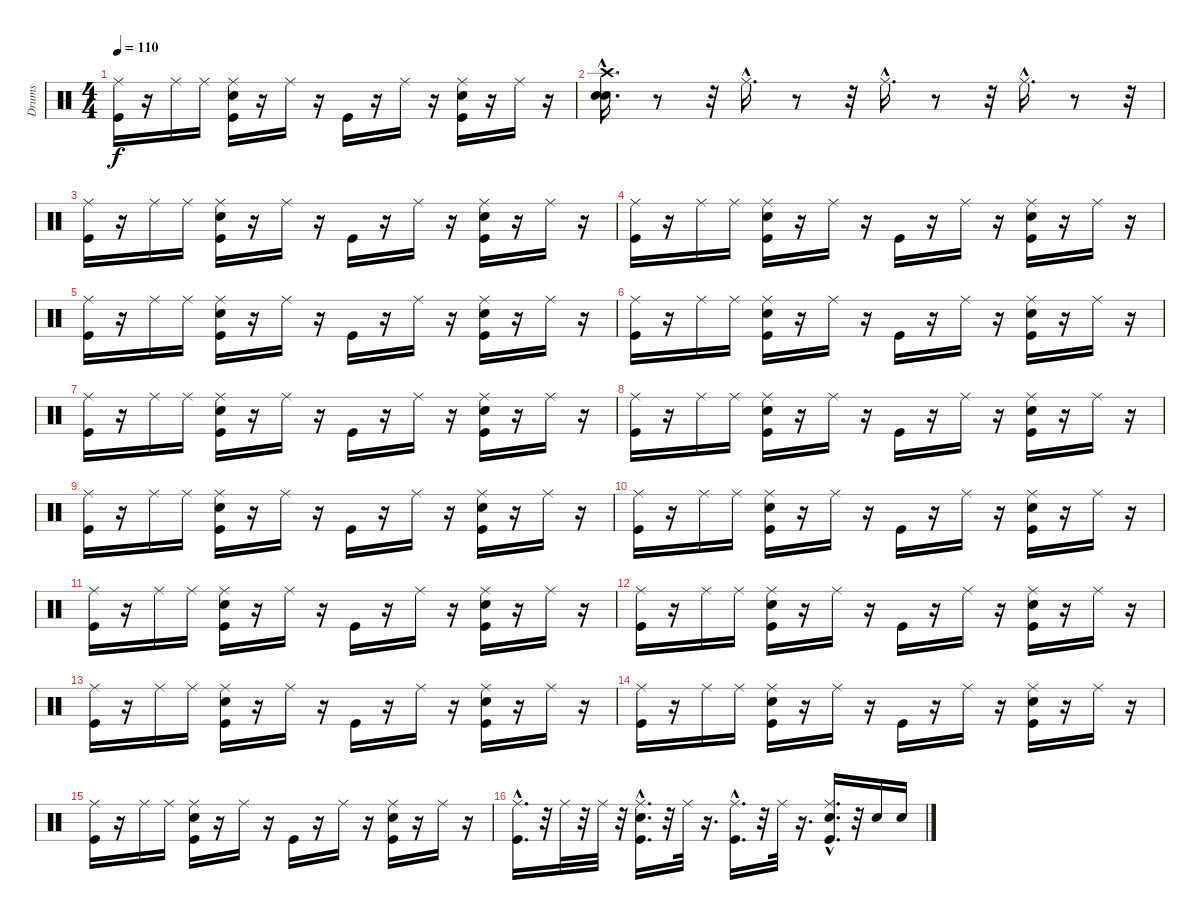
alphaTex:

\track ("Drums" "Drums") {instrument percussion}
\staff {score}
\articulation defaults
\ts (4 4)
\tempo 110
\clef neutral
\ks c
("Kick (hit)" "Ride (middle)").16{dy f} r.16 "Ride (middle)".16 "Ride (middle)".16 ("Snare (hit) 2" "Ride (middle)" "Kick (hit)").16 r.16 "Ride (middle)".16 r.16 "Kick (hit)".16 r.16 "Ride (middle)".16 r.16 ("Snare (hit) 2" "Ride (middle)" "Kick (hit)").16 r.16 "Ride (middle)".16 r.16 |
("Crash high (hit)"{hac} "Electric Snare (hit)"{hac} "Snare (hit) 2"{hac}).16{d} r.8 r.32 "Ride (middle)"{hac}.16{d} r.8 r.32 "Ride (middle)"{hac}.16{d} r.8 r.32 "Ride (middle)"{hac}.16{d} r.8 r.32 |
("Kick (hit)" "Ride (middle)").16 r.16 "Ride (middle)".16 "Ride (middle)".16 ("Snare (hit) 2" "Ride (middle)" "Kick (hit)").16 r.16 "Ride (middle)".16 r.16 "Kick (hit)".16 r.16 "Ride (middle)".16 r.16 ("Snare (hit) 2" "Ride (middle)" "Kick (hit)").16 r.16 "Ride (middle)".16 r.16 |
("Kick (hit)" "Ride (middle)").16 r.16 "Ride (middle)".16 "Ride (middle)".16 ("Snare (hit) 2" "Ride (middle)" "Kick (hit)").16 r.16 "Ride (middle)".16 r.16 "Kick (hit)".16 r.16 "Ride (middle)".16 r.16 ("Snare (hit) 2" "Ride (middle)" "Kick (hit)").16 r.16 "Ride (middle)".16 r.16 |
("Kick (hit)" "Ride (middle)").16 r.16 "Ride (middle)".16 "Ride (middle)".16 ("Snare (hit) 2" "Ride (middle)" "Kick (hit)").16 r.16 "Ride (middle)".16 r.16 "Kick (hit)".16 r.16 "Ride (middle)".16 r.16 ("Snare (hit) 2" "Ride (middle)" "Kick (hit)").16 r.16 "Ride (middle)".16 r.16 |
("Kick (hit)" "Ride (middle)").16 r.16 "Ride (middle)".16 "Ride (middle)".16 ("Snare (hit) 2" "Ride (middle)" "Kick (hit)").16 r.16 "Ride (middle)".16 r.16 "Kick (hit)".16 r.16 "Ride (middle)".16 r.16 ("Snare (hit) 2" "Ride (middle)" "Kick (hit)").16 r.16 "Ride (middle)".16 r.16 |
("Kick (hit)" "Ride (middle)").16 r.16 "Ride (middle)".16 "Ride (middle)".16 ("Snare (hit) 2" "Ride (middle)" "Kick (hit)").16 r.16 "Ride (middle)".16 r.16 "Kick (hit)".16 r.16 "Ride (middle)".16 r.16 ("Snare (hit) 2" "Ride (middle)" "Kick (hit)").16 r.16 "Ride (middle)".16 r.16 |
("Kick (hit)" "Ride (middle)").16 r.16 "Ride (middle)".16 "Ride (middle)".16 ("Snare (hit) 2" "Ride (middle)" "Kick (hit)").16 r.16 "Ride (middle)".16 r.16 "Kick (hit)".16 r.16 "Ride (middle)".16 r.16 ("Snare (hit) 2" "Ride (middle)" "Kick (hit)").16 r.16 "Ride (middle)".16 r.16 |
("Kick (hit)" "Ride (middle)").16 r.16 "Ride (middle)".16 "Ride (middle)".16 ("Snare (hit) 2" "Ride (middle)" "Kick (hit)").16 r.16 "Ride (middle)".16 r.16 "Kick (hit)".16 r.16 "Ride (middle)".16 r.16 ("Snare (hit) 2" "Ride (middle)" "Kick (hit)").16 r.16 "Ride (middle)".16 r.16 |
("Kick (hit)" "Ride (middle)").16 r.16 "Ride (middle)".16 "Ride (middle)".16 ("Snare (hit) 2" "Ride (middle)" "Kick (hit)").16 r.16 "Ride (middle)".16 r.16 "Kick (hit)".16 r.16 "Ride (middle)".16 r.16 ("Snare (hit) 2" "Ride (middle)" "Kick (hit)").16 r.16 "Ride (middle)".16 r.16 |
("Kick (hit)" "Ride (middle)").16 r.16 "Ride (middle)".16 "Ride (middle)".16 ("Snare (hit) 2" "Ride (middle)" "Kick (hit)").16 r.16 "Ride (middle)".16 r.16 "Kick (hit)".16 r.16 "Ride (middle)".16 r.16 ("Snare (hit) 2" "Ride (middle)" "Kick (hit)").16 r.16 "Ride (middle)".16 r.16 |
("Kick (hit)" "Ride (middle)").16 r.16 "Ride (middle)".16 "Ride (middle)".16 ("Snare (hit) 2" "Ride (middle)" "Kick (hit)").16 r.16 "Ride (middle)".16 r.16 "Kick (hit)".16 r.16 "Ride (middle)".16 r.16 ("Snare (hit) 2" "Ride (middle)" "Kick (hit)").16 r.16 "Ride (middle)".16 r.16 |
("Kick (hit)" "Ride (middle)").16 r.16 "Ride (middle)".16 "Ride (middle)".16 ("Snare (hit) 2" "Ride (middle)" "Kick (hit)").16 r.16 "Ride (middle)".16 r.16 "Kick (hit)".16 r.16 "Ride (middle)".16 r.16 ("Snare (hit) 2" "Ride (middle)" "Kick (hit)").16 r.16 "Ride (middle)".16 r.16 |
("Kick (hit)" "Ride (middle)").16 r.16 "Ride (middle)".16 "Ride (middle)".16 ("Snare (hit) 2" "Ride (middle)" "Kick (hit)").16 r.16 "Ride (middle)".16 r.16 "Kick (hit)".16 r.16 "Ride (middle)".16 r.16 ("Snare (hit) 2" "Ride (middle)" "Kick (hit)").16 r.16 "Ride (middle)".16 r.16 |
("Kick (hit)" "Ride (middle)").16 r.16 "Ride (middle)".16 "Ride (middle)".16 ("Snare (hit) 2" "Ride (middle)" "Kick (hit)").16 r.16 "Ride (middle)".16 r.16 "Kick (hit)".16 r.16 "Ride (middle)".16 r.16 ("Snare (hit) 2" "Ride (middle)" "Kick (hit)").16 r.16 "Ride (middle)".16 r.16 |
("Ride (middle)" "Kick (hit)"{hac}).16{d} r.32 "Ride (middle)".32 r.32 "Ride (middle)".32 r.32 ("Snare (hit) 2" "Ride (middle)" "Kick (hit)"{hac}).16{d} r.32 "Ride (middle)".32 r.16{d} ("Ride (middle)" "Kick (hit)"{hac}).16{d} r.32 "Ride (middle)".32 r.16{d} ("Snare (hit) 2" "Ride (middle)" "Kick (hit)"{hac}).16{d} r.32 "Snare (hit) 2".16 "Snare (hit) 2".16
